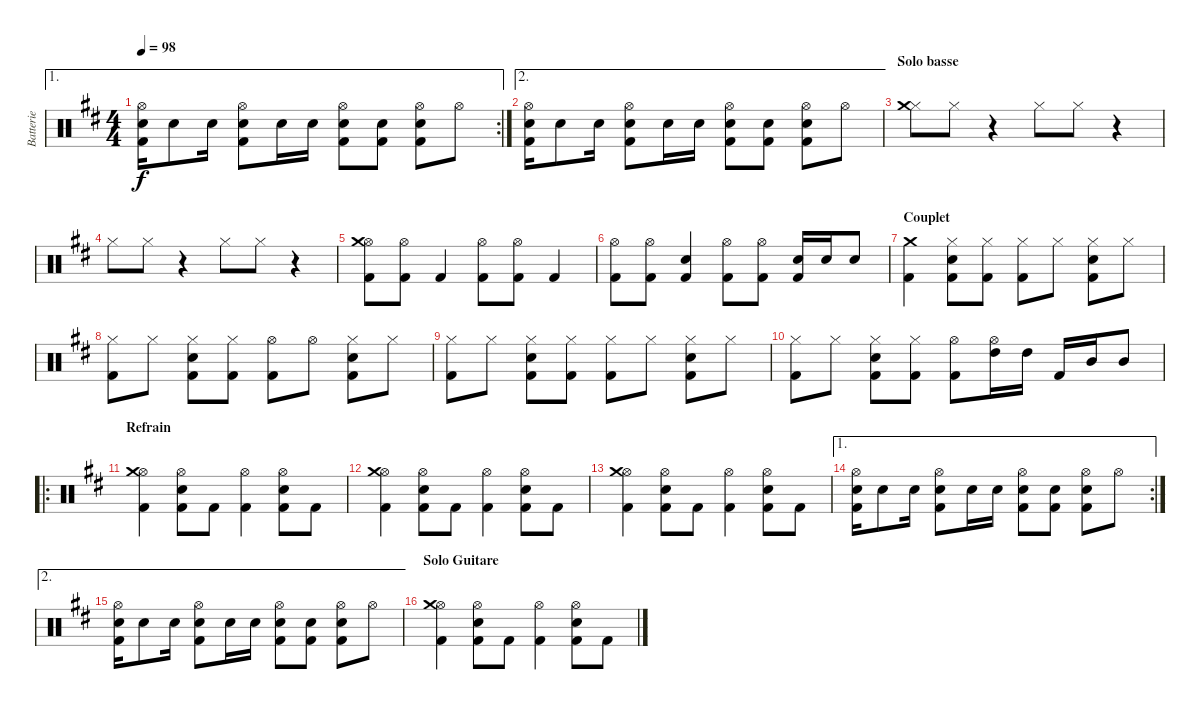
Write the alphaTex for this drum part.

\track ("Batterie" "Batterie") {instrument percussion}
\staff {score}
\articulation defaults
\ae 1
\rc 2
\ts (4 4)
\tempo 98
\clef neutral
\ks d
("Hi-Hat (open)" "Snare (hit) 2" "Kick (hit) 2").16{dy f} "Snare (hit) 2".8 "Snare (hit) 2".16 ("Hi-Hat (open)" "Snare (hit) 2" "Kick (hit) 2").8 "Snare (hit) 2".16 "Snare (hit) 2".16 ("Hi-Hat (open)" "Snare (hit) 2" "Kick (hit) 2").8 ("Snare (hit) 2" "Kick (hit) 2").8 ("Hi-Hat (open)" "Snare (hit) 2" "Kick (hit) 2").8 "Hi-Hat (open)".8 |
\ae 2
("Hi-Hat (open)" "Snare (hit) 2" "Kick (hit) 2").16 "Snare (hit) 2".8 "Snare (hit) 2".16 ("Hi-Hat (open)" "Snare (hit) 2" "Kick (hit) 2").8 "Snare (hit) 2".16 "Snare (hit) 2".16 ("Hi-Hat (open)" "Snare (hit) 2" "Kick (hit) 2").8 ("Snare (hit) 2" "Kick (hit) 2").8 ("Hi-Hat (open)" "Snare (hit) 2" "Kick (hit) 2").8 "Hi-Hat (open)".8 |
\section ("" "Solo basse")
("Hi-Hat (closed)" "Crash medium (hit)").8 "Hi-Hat (closed)".8 r.4 "Hi-Hat (closed)".8 "Hi-Hat (closed)".8 r.4 |
"Hi-Hat (closed)".8 "Hi-Hat (closed)".8 r.4 "Hi-Hat (closed)".8 "Hi-Hat (closed)".8 r.4 |
("Hi-Hat (open)" "Crash medium (hit)" "Kick (hit) 2").8 ("Hi-Hat (open)" "Kick (hit) 2").8 "Kick (hit) 2".4 ("Hi-Hat (open)" "Kick (hit) 2").8 ("Hi-Hat (open)" "Kick (hit) 2").8 "Kick (hit) 2".4 |
("Hi-Hat (open)" "Kick (hit) 2").8 ("Hi-Hat (open)" "Kick (hit) 2").8 ("Snare (hit) 2" "Kick (hit) 2").4 ("Hi-Hat (open)" "Kick (hit) 2").8 ("Hi-Hat (open)" "Kick (hit) 2").8 ("Snare (hit) 2" "Kick (hit) 2").16 "Snare (hit) 2".16 "Snare (hit) 2".8 |
\section ("" "Couplet")
("Crash medium (hit)" "Kick (hit) 2").4 ("Hi-Hat (closed)" "Snare (hit) 2" "Kick (hit) 2").8 ("Hi-Hat (closed)" "Kick (hit) 2").8 ("Hi-Hat (closed)" "Kick (hit) 2").8 "Hi-Hat (closed)".8 ("Hi-Hat (closed)" "Snare (hit) 2" "Kick (hit) 2").8 "Hi-Hat (closed)".8 |
("Hi-Hat (closed)" "Kick (hit) 2").8 "Hi-Hat (closed)".8 ("Hi-Hat (closed)" "Snare (hit) 2" "Kick (hit) 2").8 ("Hi-Hat (closed)" "Kick (hit) 2").8 ("Hi-Hat (open)" "Kick (hit) 2").8 "Hi-Hat (open)".8 ("Hi-Hat (closed)" "Snare (hit) 2" "Kick (hit) 2").8 "Hi-Hat (closed)".8 |
("Hi-Hat (closed)" "Kick (hit) 2").8 "Hi-Hat (closed)".8 ("Hi-Hat (closed)" "Snare (hit) 2" "Kick (hit) 2").8 ("Hi-Hat (closed)" "Kick (hit) 2").8 ("Hi-Hat (closed)" "Kick (hit) 2").8 "Hi-Hat (closed)".8 ("Hi-Hat (closed)" "Snare (hit) 2" "Kick (hit) 2").8 "Hi-Hat (closed)".8 |
("Hi-Hat (closed)" "Kick (hit) 2").8 "Hi-Hat (closed)".8 ("Hi-Hat (closed)" "Snare (hit) 2" "Kick (hit) 2").8 ("Hi-Hat (closed)" "Kick (hit) 2").8 ("Hi-Hat (open)" "Kick (hit) 2").8 ("Hi-Hat (open)" "High Tom (hit)").16 "High Tom (hit)".16 "Kick (hit) 2".16 "Mid Tom (hit)".16 "Mid Tom (hit)".8 |
\ro
\section ("" "Refrain")
("Hi-Hat (open)" "Crash medium (hit)" "Kick (hit) 2").4 ("Hi-Hat (open)" "Snare (hit) 2" "Kick (hit) 2").8 "Kick (hit) 2".8 ("Hi-Hat (open)" "Kick (hit) 2").4 ("Hi-Hat (open)" "Snare (hit) 2" "Kick (hit) 2").8 "Kick (hit) 2".8 |
("Hi-Hat (open)" "Crash medium (hit)" "Kick (hit) 2").4 ("Hi-Hat (open)" "Snare (hit) 2" "Kick (hit) 2").8 "Kick (hit) 2".8 ("Hi-Hat (open)" "Kick (hit) 2").4 ("Hi-Hat (open)" "Snare (hit) 2" "Kick (hit) 2").8 "Kick (hit) 2".8 |
("Hi-Hat (open)" "Crash medium (hit)" "Kick (hit) 2").4 ("Hi-Hat (open)" "Snare (hit) 2" "Kick (hit) 2").8 "Kick (hit) 2".8 ("Hi-Hat (open)" "Kick (hit) 2").4 ("Hi-Hat (open)" "Snare (hit) 2" "Kick (hit) 2").8 "Kick (hit) 2".8 |
\ae 1
\rc 2
("Hi-Hat (open)" "Snare (hit) 2" "Kick (hit) 2").16 "Snare (hit) 2".8 "Snare (hit) 2".16 ("Hi-Hat (open)" "Snare (hit) 2" "Kick (hit) 2").8 "Snare (hit) 2".16 "Snare (hit) 2".16 ("Hi-Hat (open)" "Snare (hit) 2" "Kick (hit) 2").8 ("Snare (hit) 2" "Kick (hit) 2").8 ("Hi-Hat (open)" "Snare (hit) 2" "Kick (hit) 2").8 "Hi-Hat (open)".8 |
\ae 2
("Hi-Hat (open)" "Snare (hit) 2" "Kick (hit) 2").16 "Snare (hit) 2".8 "Snare (hit) 2".16 ("Hi-Hat (open)" "Snare (hit) 2" "Kick (hit) 2").8 "Snare (hit) 2".16 "Snare (hit) 2".16 ("Hi-Hat (open)" "Snare (hit) 2" "Kick (hit) 2").8 ("Snare (hit) 2" "Kick (hit) 2").8 ("Hi-Hat (open)" "Snare (hit) 2" "Kick (hit) 2").8 "Hi-Hat (open)".8 |
\section ("" "Solo Guitare")
("Hi-Hat (open)" "Crash medium (hit)" "Kick (hit) 2").4 ("Hi-Hat (open)" "Snare (hit) 2" "Kick (hit) 2").8 "Kick (hit) 2".8 ("Hi-Hat (open)" "Kick (hit) 2").4 ("Hi-Hat (open)" "Snare (hit) 2" "Kick (hit) 2").8 "Kick (hit) 2".8
